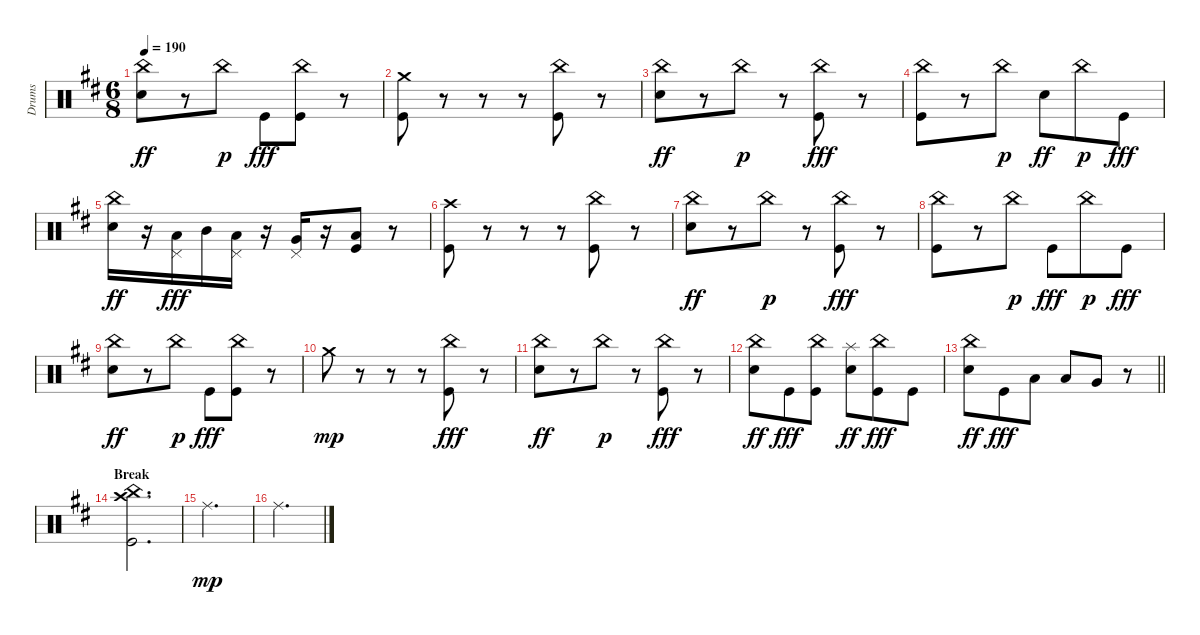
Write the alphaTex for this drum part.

\track ("Drums" "Drums") {instrument percussion}
\staff {score}
\articulation defaults
\ts (6 8)
\tempo 190
\clef neutral
\ks bminor
("China (hit)" "Snare (hit) 2").8{dy ff} r.8 "China (hit)".8{dy p} "Kick (hit)".8{dy fff} ("China (hit)" "Kick (hit)").8 r.8 |
("Crash medium (hit)" "Kick (hit)").8 r.8 r.8 r.8 ("China (hit)" "Kick (hit)").8 r.8 |
("China (hit)" "Snare (hit) 2").8{dy ff} r.8 "China (hit)".8{dy p} r.8 ("China (hit)" "Kick (hit)").8{dy fff} r.8 |
("China (hit)" "Kick (hit)").8 r.8 "China (hit)".8{dy p} "Snare (hit) 2".8{dy ff} "China (hit)".8{dy p} "Kick (hit)".8{dy fff} |
("China (hit)" "Snare (hit) 2").16{dy ff} r.16 ("Pedal Hi-Hat (hit)" "Low Tom (hit)").16{dy fff} "Mid Tom (hit)".16 ("Pedal Hi-Hat (hit)" "Low Tom (hit)").16 r.16 ("Pedal Hi-Hat (hit)" "Very Low Tom (hit)").16 r.16 ("Low Floor Tom (hit)" "Kick (hit)").8 r.8 |
("Crash high (hit)" "Kick (hit)").8 r.8 r.8 r.8 ("China (hit)" "Kick (hit)").8 r.8 |
("China (hit)" "Snare (hit) 2").8{dy ff} r.8 "China (hit)".8{dy p} r.8 ("China (hit)" "Kick (hit)").8{dy fff} r.8 |
("China (hit)" "Kick (hit)").8 r.8 "China (hit)".8{dy p} "Kick (hit)".8{dy fff} "China (hit)".8{dy p} "Kick (hit)".8{dy fff} |
("China (hit)" "Snare (hit) 2").8{dy ff} r.8 "China (hit)".8{dy p} "Kick (hit)".8{dy fff} ("China (hit)" "Kick (hit)").8 r.8 |
"Crash medium (hit)".8{dy mp} r.8 r.8 r.8 ("China (hit)" "Kick (hit)").8{dy fff} r.8 |
("China (hit)" "Snare (hit) 2").8{dy ff} r.8 "China (hit)".8{dy p} r.8 ("China (hit)" "Kick (hit)").8{dy fff} r.8 |
("China (hit)" "Snare (hit) 2").8{dy ff} "Kick (hit)".8{dy fff} ("China (hit)" "Kick (hit)").8 ("Splash (hit)" "Snare (hit) 2").8{dy ff} ("China (hit)" "Kick (hit)").8{dy fff} "Kick (hit)".8 |
\barLineRight lightlight
("China (hit)" "Snare (hit) 2").8{dy ff} "Kick (hit)".8{dy fff} "Low Tom (hit)".8 "Low Tom (hit)".8 "Very Low Tom (hit)".8 r.8 |
\section ("" "Break")
("Crash high (hit)" "China (hit)" "Kick (hit)").2{d} |
"Ride (middle)".2{d dy mp} |
"Ride (middle)".2{d}
